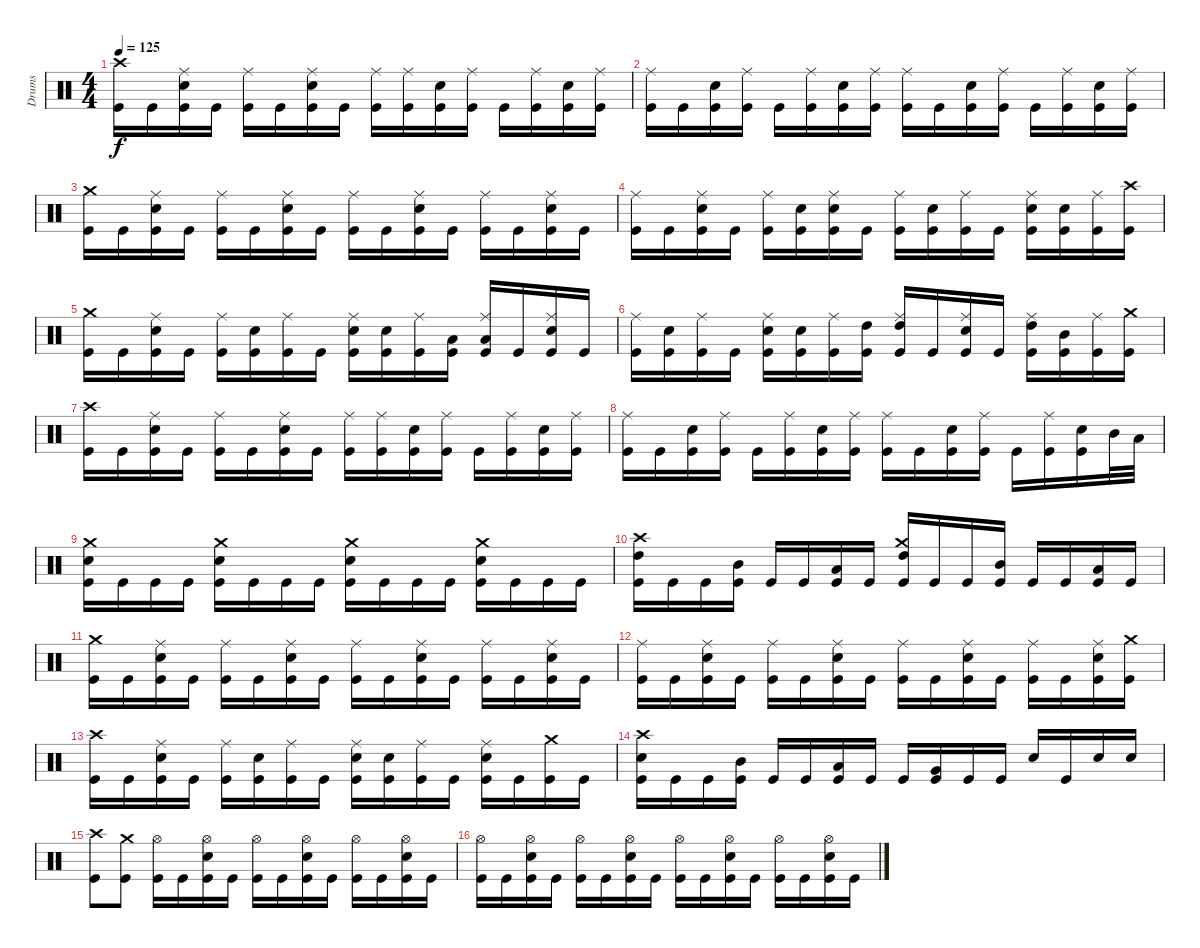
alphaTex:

\track ("Drums" "Drums") {instrument percussion}
\staff {score}
\articulation defaults
\ts (4 4)
\tempo 125
\clef neutral
\ks c
("Crash high (hit)" "Kick (hit)").16{dy f} "Kick (hit)".16 ("Ride (middle)" "Snare (hit) 2" "Kick (hit)").16 "Kick (hit)".16 ("Ride (middle)" "Kick (hit)").16 "Kick (hit)".16 ("Ride (middle)" "Snare (hit) 2" "Kick (hit)").16 "Kick (hit)".16 ("Ride (middle)" "Kick (hit)").16 ("Ride (middle)" "Kick (hit)").16 ("Snare (hit) 2" "Kick (hit)").16 ("Ride (middle)" "Kick (hit)").16 "Kick (hit)".16 ("Ride (middle)" "Kick (hit)").16 ("Snare (hit) 2" "Kick (hit)").16 ("Ride (middle)" "Kick (hit)").16 |
("Ride (middle)" "Kick (hit)").16 "Kick (hit)".16 ("Snare (hit) 2" "Kick (hit)").16 ("Ride (middle)" "Kick (hit)").16 "Kick (hit)".16 ("Ride (middle)" "Kick (hit)").16 ("Snare (hit) 2" "Kick (hit)").16 ("Ride (middle)" "Kick (hit)").16 ("Ride (middle)" "Kick (hit)").16 "Kick (hit)".16 ("Snare (hit) 2" "Kick (hit)").16 ("Ride (middle)" "Kick (hit)").16 "Kick (hit)".16 ("Ride (middle)" "Kick (hit)").16 ("Snare (hit) 2" "Kick (hit)").16 ("Ride (middle)" "Kick (hit)").16 |
("Crash medium (hit)" "Kick (hit)").16 "Kick (hit)".16 ("Ride (middle)" "Snare (hit) 2" "Kick (hit)").16 "Kick (hit)".16 ("Ride (middle)" "Kick (hit)").16 "Kick (hit)".16 ("Ride (middle)" "Snare (hit) 2" "Kick (hit)").16 "Kick (hit)".16 ("Ride (middle)" "Kick (hit)").16 "Kick (hit)".16 ("Ride (middle)" "Snare (hit) 2" "Kick (hit)").16 "Kick (hit)".16 ("Ride (middle)" "Kick (hit)").16 "Kick (hit)".16 ("Ride (middle)" "Snare (hit) 2" "Kick (hit)").16 "Kick (hit)".16 |
("Ride (middle)" "Kick (hit)").16 "Kick (hit)".16 ("Ride (middle)" "Snare (hit) 2" "Kick (hit)").16 "Kick (hit)".16 ("Ride (middle)" "Kick (hit)").16 ("Snare (hit) 2" "Kick (hit)").16 ("Ride (middle)" "Snare (hit) 2" "Kick (hit)").16 "Kick (hit)".16 ("Ride (middle)" "Kick (hit)").16 ("Snare (hit) 2" "Kick (hit)").16 ("Ride (middle)" "Kick (hit)").16 "Kick (hit)".16 ("Ride (middle)" "Snare (hit) 2" "Kick (hit)").16 ("Snare (hit) 2" "Kick (hit)").16 ("Ride (middle)" "Kick (hit)").16 ("Crash high (hit)" "Kick (hit)").16 |
("Crash medium (hit)" "Kick (hit)").16 "Kick (hit)".16 ("Ride (middle)" "Snare (hit) 2" "Kick (hit)").16 "Kick (hit)".16 ("Ride (middle)" "Kick (hit)").16 ("Snare (hit) 2" "Kick (hit)").16 ("Ride (middle)" "Kick (hit)").16 "Kick (hit)".16 ("Ride (middle)" "Snare (hit) 2" "Kick (hit)").16 ("Snare (hit) 2" "Kick (hit)").16 ("Ride (middle)" "Kick (hit)").16 ("Low Tom (hit)" "Kick (hit)").16 ("Ride (middle)" "Low Tom (hit)" "Kick (hit)").16 "Kick (hit)".16 ("Ride (middle)" "Snare (hit) 2" "Kick (hit)").16 "Kick (hit)".16 |
("Ride (middle)" "Kick (hit)").16 ("Snare (hit) 2" "Kick (hit)").16 ("Ride (middle)" "Kick (hit)").16 "Kick (hit)".16 ("Ride (middle)" "Snare (hit) 2" "Kick (hit)").16 ("Snare (hit) 2" "Kick (hit)").16 ("Ride (middle)" "Kick (hit)").16 ("High Tom (hit)" "Kick (hit)").16 ("Ride (middle)" "High Tom (hit)" "Kick (hit)").16 "Kick (hit)".16 ("Ride (middle)" "Snare (hit) 2" "Kick (hit)").16 "Kick (hit)".16 ("Ride (middle)" "High Tom (hit)" "Kick (hit)").16 ("Mid Tom (hit)" "Kick (hit)").16 ("Ride (middle)" "Kick (hit)").16 ("Crash medium (hit)" "Kick (hit)").16 |
("Crash high (hit)" "Kick (hit)").16 "Kick (hit)".16 ("Ride (middle)" "Snare (hit) 2" "Kick (hit)").16 "Kick (hit)".16 ("Ride (middle)" "Kick (hit)").16 "Kick (hit)".16 ("Ride (middle)" "Snare (hit) 2" "Kick (hit)").16 "Kick (hit)".16 ("Ride (middle)" "Kick (hit)").16 ("Ride (middle)" "Kick (hit)").16 ("Snare (hit) 2" "Kick (hit)").16 ("Ride (middle)" "Kick (hit)").16 "Kick (hit)".16 ("Ride (middle)" "Kick (hit)").16 ("Snare (hit) 2" "Kick (hit)").16 ("Ride (middle)" "Kick (hit)").16 |
("Ride (middle)" "Kick (hit)").16 "Kick (hit)".16 ("Snare (hit) 2" "Kick (hit)").16 ("Ride (middle)" "Kick (hit)").16 "Kick (hit)".16 ("Ride (middle)" "Kick (hit)").16 ("Snare (hit) 2" "Kick (hit)").16 ("Ride (middle)" "Kick (hit)").16 ("Ride (middle)" "Kick (hit)").16 "Kick (hit)".16 ("Snare (hit) 2" "Kick (hit)").16 ("Ride (middle)" "Kick (hit)").16 "Kick (hit)".16 ("Ride (middle)" "Kick (hit)").16 ("Snare (hit) 2" "Kick (hit)").16 "Mid Tom (hit)".32 "Low Tom (hit)".32 |
("Crash medium (hit)" "Snare (hit) 2" "Kick (hit)").16 "Kick (hit)".16 "Kick (hit)".16 "Kick (hit)".16 ("Crash medium (hit)" "Snare (hit) 2" "Kick (hit)").16 "Kick (hit)".16 "Kick (hit)".16 "Kick (hit)".16 ("Crash medium (hit)" "Snare (hit) 2" "Kick (hit)").16 "Kick (hit)".16 "Kick (hit)".16 "Kick (hit)".16 ("Crash medium (hit)" "Snare (hit) 2" "Kick (hit)").16 "Kick (hit)".16 "Kick (hit)".16 "Kick (hit)".16 |
("Crash high (hit)" "High Tom (hit)" "Kick (hit)").16 "Kick (hit)".16 "Kick (hit)".16 ("Mid Tom (hit)" "Kick (hit)").16 "Kick (hit)".16 "Kick (hit)".16 ("Low Tom (hit)" "Kick (hit)").16 "Kick (hit)".16 ("Crash medium (hit)" "High Tom (hit)" "Kick (hit)").16 "Kick (hit)".16 "Kick (hit)".16 ("Mid Tom (hit)" "Kick (hit)").16 "Kick (hit)".16 "Kick (hit)".16 ("Low Tom (hit)" "Kick (hit)").16 "Kick (hit)".16 |
("Crash medium (hit)" "Kick (hit)").16 "Kick (hit)".16 ("Ride (middle)" "Snare (hit) 2" "Kick (hit)").16 "Kick (hit)".16 ("Ride (middle)" "Kick (hit)").16 "Kick (hit)".16 ("Ride (middle)" "Snare (hit) 2" "Kick (hit)").16 "Kick (hit)".16 ("Ride (middle)" "Kick (hit)").16 "Kick (hit)".16 ("Ride (middle)" "Snare (hit) 2" "Kick (hit)").16 "Kick (hit)".16 ("Ride (middle)" "Kick (hit)").16 "Kick (hit)".16 ("Ride (middle)" "Snare (hit) 2" "Kick (hit)").16 "Kick (hit)".16 |
("Ride (middle)" "Kick (hit)").16 "Kick (hit)".16 ("Ride (middle)" "Snare (hit) 2" "Kick (hit)").16 "Kick (hit)".16 ("Ride (middle)" "Kick (hit)").16 "Kick (hit)".16 ("Ride (middle)" "Snare (hit) 2" "Kick (hit)").16 "Kick (hit)".16 ("Ride (middle)" "Kick (hit)").16 "Kick (hit)".16 ("Ride (middle)" "Snare (hit) 2" "Kick (hit)").16 "Kick (hit)".16 ("Ride (middle)" "Kick (hit)").16 "Kick (hit)".16 ("Ride (middle)" "Snare (hit) 2" "Kick (hit)").16 ("Crash medium (hit)" "Kick (hit)").16 |
("Crash high (hit)" "Kick (hit)").16 "Kick (hit)".16 ("Ride (middle)" "Snare (hit) 2" "Kick (hit)").16 "Kick (hit)".16 ("Ride (middle)" "Kick (hit)").16 ("Snare (hit) 2" "Kick (hit)").16 ("Ride (middle)" "Kick (hit)").16 "Kick (hit)".16 ("Ride (middle)" "Snare (hit) 2" "Kick (hit)").16 ("Snare (hit) 2" "Kick (hit)").16 ("Ride (middle)" "Kick (hit)").16 "Kick (hit)".16 ("Ride (middle)" "Snare (hit) 2" "Kick (hit)").16 "Kick (hit)".16 ("Crash medium (hit)" "Kick (hit)").16 "Kick (hit)".16 |
("Crash high (hit)" "Snare (hit) 2" "Kick (hit)").16 "Kick (hit)".16 "Kick (hit)".16 ("Mid Tom (hit)" "Kick (hit)").16 "Kick (hit)".16 "Kick (hit)".16 ("Low Tom (hit)" "Kick (hit)").16 "Kick (hit)".16 "Kick (hit)".16 ("Very Low Tom (hit)" "Kick (hit)").16 "Kick (hit)".16 "Kick (hit)".16 "Snare (hit) 2".16 "Kick (hit)".16 "Snare (hit) 2".16 "Snare (hit) 2".16 |
("Crash high (hit)" "Kick (hit)").8 ("Crash medium (hit)" "Kick (hit)").8 ("Hi-Hat (open)" "Kick (hit)").16 "Kick (hit)".16 ("Hi-Hat (open)" "Snare (hit) 2" "Kick (hit)").16 "Kick (hit)".16 ("Hi-Hat (open)" "Kick (hit)").16 "Kick (hit)".16 ("Hi-Hat (open)" "Snare (hit) 2" "Kick (hit)").16 "Kick (hit)".16 ("Hi-Hat (open)" "Kick (hit)").16 "Kick (hit)".16 ("Hi-Hat (open)" "Snare (hit) 2" "Kick (hit)").16 "Kick (hit)".16 |
("Hi-Hat (open)" "Kick (hit)").16 "Kick (hit)".16 ("Hi-Hat (open)" "Snare (hit) 2" "Kick (hit)").16 "Kick (hit)".16 ("Hi-Hat (open)" "Kick (hit)").16 "Kick (hit)".16 ("Hi-Hat (open)" "Snare (hit) 2" "Kick (hit)").16 "Kick (hit)".16 ("Hi-Hat (open)" "Kick (hit)").16 "Kick (hit)".16 ("Hi-Hat (open)" "Snare (hit) 2" "Kick (hit)").16 "Kick (hit)".16 ("Hi-Hat (open)" "Kick (hit)").16 "Kick (hit)".16 ("Hi-Hat (open)" "Snare (hit) 2" "Kick (hit)").16 "Kick (hit)".16
